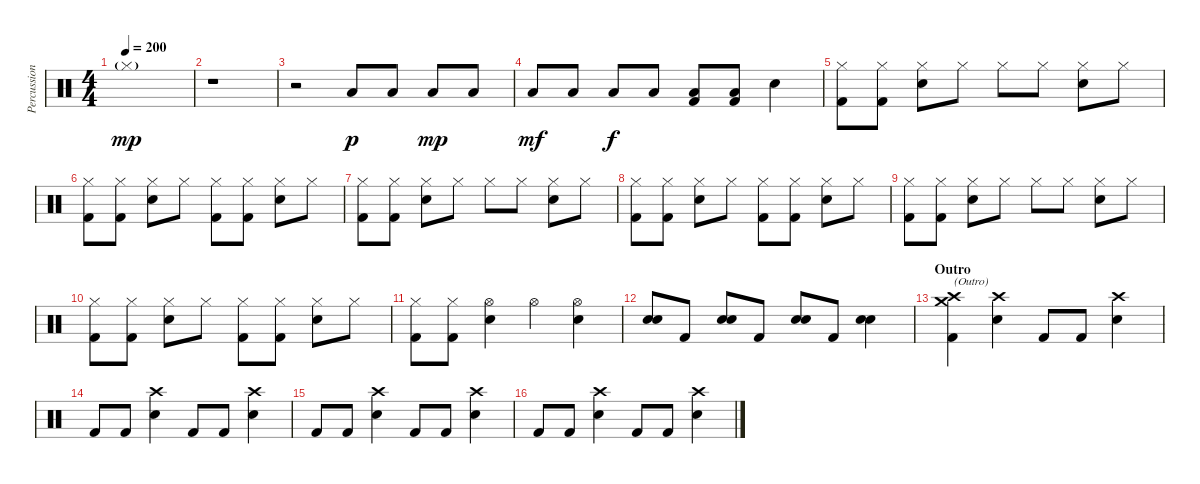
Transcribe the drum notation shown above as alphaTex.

\track ("Percussion" "Percussion") {instrument percussion}
\staff {score}
\articulation defaults
\ts (4 4)
\tempo 200
\clef neutral
\ks c "Hi-Hat (closed)"{g}.1{dy mp}
|
r.1 |
r.2 "Low Floor Tom (hit)".8{dy p} "Low Floor Tom (hit)".8 "Low Floor Tom (hit)".8{dy mp} "Low Floor Tom (hit)".8 |
"Low Floor Tom (hit)".8{dy mf} "Low Floor Tom (hit)".8 "Low Floor Tom (hit)".8{dy f} "Low Floor Tom (hit)".8 ("Low Floor Tom (hit)" "Kick (hit) 2").8 ("Low Floor Tom (hit)" "Kick (hit) 2").8 "Electric Snare (hit)".4 |
("Hi-Hat (closed)" "Kick (hit) 2").8 ("Hi-Hat (closed)" "Kick (hit) 2").8 ("Hi-Hat (closed)" "Electric Snare (hit)").8 "Hi-Hat (closed)".8 "Hi-Hat (closed)".8 "Hi-Hat (closed)".8 ("Hi-Hat (closed)" "Electric Snare (hit)").8 "Hi-Hat (closed)".8 |
("Hi-Hat (closed)" "Kick (hit) 2").8 ("Hi-Hat (closed)" "Kick (hit) 2").8 ("Hi-Hat (closed)" "Electric Snare (hit)").8 "Hi-Hat (closed)".8 ("Hi-Hat (closed)" "Kick (hit) 2").8 ("Hi-Hat (closed)" "Kick (hit) 2").8 ("Hi-Hat (closed)" "Electric Snare (hit)").8 "Hi-Hat (closed)".8 |
("Hi-Hat (closed)" "Kick (hit) 2").8 ("Hi-Hat (closed)" "Kick (hit) 2").8 ("Hi-Hat (closed)" "Electric Snare (hit)").8 "Hi-Hat (closed)".8 "Hi-Hat (closed)".8 "Hi-Hat (closed)".8 ("Hi-Hat (closed)" "Electric Snare (hit)").8 "Hi-Hat (closed)".8 |
("Hi-Hat (closed)" "Kick (hit) 2").8 ("Hi-Hat (closed)" "Kick (hit) 2").8 ("Hi-Hat (closed)" "Electric Snare (hit)").8 "Hi-Hat (closed)".8 ("Hi-Hat (closed)" "Kick (hit) 2").8 ("Hi-Hat (closed)" "Kick (hit) 2").8 ("Hi-Hat (closed)" "Electric Snare (hit)").8 "Hi-Hat (closed)".8 |
("Hi-Hat (closed)" "Kick (hit) 2").8 ("Hi-Hat (closed)" "Kick (hit) 2").8 ("Hi-Hat (closed)" "Electric Snare (hit)").8 "Hi-Hat (closed)".8 "Hi-Hat (closed)".8 "Hi-Hat (closed)".8 ("Hi-Hat (closed)" "Electric Snare (hit)").8 "Hi-Hat (closed)".8 |
("Hi-Hat (closed)" "Kick (hit) 2").8 ("Hi-Hat (closed)" "Kick (hit) 2").8 ("Hi-Hat (closed)" "Electric Snare (hit)").8 "Hi-Hat (closed)".8 ("Hi-Hat (closed)" "Kick (hit) 2").8 ("Hi-Hat (closed)" "Kick (hit) 2").8 ("Hi-Hat (closed)" "Electric Snare (hit)").8 "Hi-Hat (closed)".8 |
("Hi-Hat (closed)" "Kick (hit) 2").8 ("Hi-Hat (closed)" "Kick (hit) 2").8 ("Hi-Hat (open)" "Electric Snare (hit)").4 "Hi-Hat (open)".4 ("Hi-Hat (open)" "Electric Snare (hit)").4 |
("Electric Snare (hit)" "Electric Snare (hit)").8 "Kick (hit) 2".8 ("Electric Snare (hit)" "Electric Snare (hit)").8 "Kick (hit) 2".8 ("Electric Snare (hit)" "Electric Snare (hit)").8 "Kick (hit) 2".8 ("Electric Snare (hit)" "Electric Snare (hit)").4 |
\section ("" "Outro")
("Crash medium (hit)" "Crash high (hit)" "Kick (hit) 2").4{txt "(Outro)"} ("Crash high (hit)" "Electric Snare (hit)").4 "Kick (hit) 2".8 "Kick (hit) 2".8 ("Crash high (hit)" "Electric Snare (hit)").4 |
"Kick (hit) 2".8 "Kick (hit) 2".8 ("Crash high (hit)" "Electric Snare (hit)").4 "Kick (hit) 2".8 "Kick (hit) 2".8 ("Crash high (hit)" "Electric Snare (hit)").4 |
"Kick (hit) 2".8 "Kick (hit) 2".8 ("Crash high (hit)" "Electric Snare (hit)").4 "Kick (hit) 2".8 "Kick (hit) 2".8 ("Crash high (hit)" "Electric Snare (hit)").4 |
"Kick (hit) 2".8 "Kick (hit) 2".8 ("Crash high (hit)" "Electric Snare (hit)").4 "Kick (hit) 2".8 "Kick (hit) 2".8 ("Crash high (hit)" "Electric Snare (hit)").4
